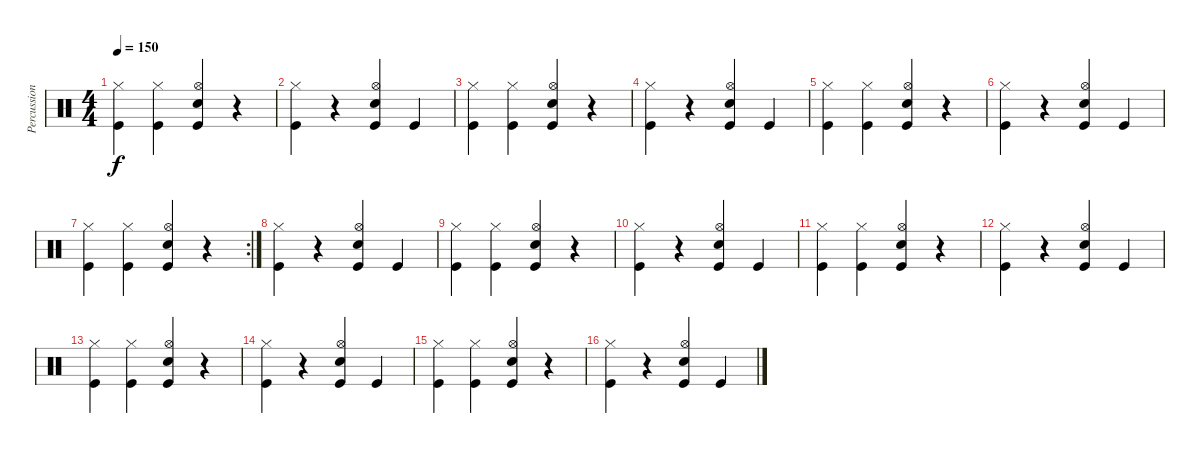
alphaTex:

\track ("Percussion" "Percussion") {instrument percussion}
\staff {score}
\articulation defaults
\ts (4 4)
\tempo 150
\clef neutral
\ks c
("Hi-Hat (closed)" "Kick (hit)").4{dy f} ("Hi-Hat (closed)" "Kick (hit)").4 ("Hi-Hat (open)" "Kick (hit)" "Electric Snare (hit)").4 r.4 |
("Hi-Hat (closed)" "Kick (hit)").4 r.4 ("Hi-Hat (open)" "Kick (hit)" "Electric Snare (hit)").4 "Kick (hit)".4 |
("Hi-Hat (closed)" "Kick (hit)").4 ("Hi-Hat (closed)" "Kick (hit)").4 ("Hi-Hat (open)" "Kick (hit)" "Electric Snare (hit)").4 r.4 |
("Hi-Hat (closed)" "Kick (hit)").4 r.4 ("Hi-Hat (open)" "Kick (hit)" "Electric Snare (hit)").4 "Kick (hit)".4 |
("Hi-Hat (closed)" "Kick (hit)").4 ("Hi-Hat (closed)" "Kick (hit)").4 ("Hi-Hat (open)" "Kick (hit)" "Electric Snare (hit)").4 r.4 |
("Hi-Hat (closed)" "Kick (hit)").4 r.4 ("Hi-Hat (open)" "Kick (hit)" "Electric Snare (hit)").4 "Kick (hit)".4 |
\rc 2
("Hi-Hat (closed)" "Kick (hit)").4 ("Hi-Hat (closed)" "Kick (hit)").4 ("Hi-Hat (open)" "Kick (hit)" "Electric Snare (hit)").4 r.4 |
("Hi-Hat (closed)" "Kick (hit)").4 r.4 ("Hi-Hat (open)" "Kick (hit)" "Electric Snare (hit)").4 "Kick (hit)".4 |
("Hi-Hat (closed)" "Kick (hit)").4 ("Hi-Hat (closed)" "Kick (hit)").4 ("Hi-Hat (open)" "Kick (hit)" "Electric Snare (hit)").4 r.4 |
("Hi-Hat (closed)" "Kick (hit)").4 r.4 ("Hi-Hat (open)" "Kick (hit)" "Electric Snare (hit)").4 "Kick (hit)".4 |
("Hi-Hat (closed)" "Kick (hit)").4 ("Hi-Hat (closed)" "Kick (hit)").4 ("Hi-Hat (open)" "Kick (hit)" "Electric Snare (hit)").4 r.4 |
("Hi-Hat (closed)" "Kick (hit)").4 r.4 ("Hi-Hat (open)" "Kick (hit)" "Electric Snare (hit)").4 "Kick (hit)".4 |
("Hi-Hat (closed)" "Kick (hit)").4 ("Hi-Hat (closed)" "Kick (hit)").4 ("Hi-Hat (open)" "Kick (hit)" "Electric Snare (hit)").4 r.4 |
("Hi-Hat (closed)" "Kick (hit)").4 r.4 ("Hi-Hat (open)" "Kick (hit)" "Electric Snare (hit)").4 "Kick (hit)".4 |
("Hi-Hat (closed)" "Kick (hit)").4 ("Hi-Hat (closed)" "Kick (hit)").4 ("Hi-Hat (open)" "Kick (hit)" "Electric Snare (hit)").4 r.4 |
("Hi-Hat (closed)" "Kick (hit)").4 r.4 ("Hi-Hat (open)" "Kick (hit)" "Electric Snare (hit)").4 "Kick (hit)".4
